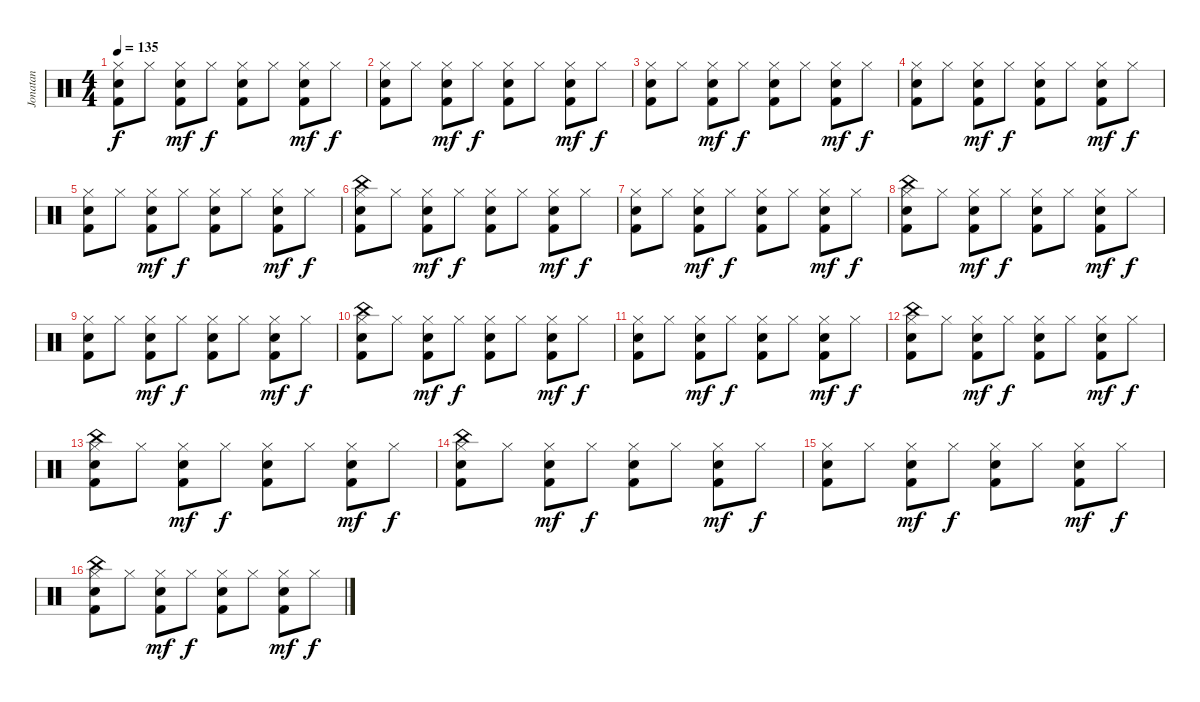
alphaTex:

\track ("Jonatan" "Jonatan") {instrument percussion}
\staff {score}
\articulation defaults
\ts (4 4)
\tempo 135
\clef neutral
\ks c
("Hi-Hat (closed)" "Electric Snare (hit)" "Kick (hit) 2").8{dy f} "Hi-Hat (closed)".8 ("Hi-Hat (closed)" "Electric Snare (hit)" "Kick (hit) 2").8{dy mf} "Hi-Hat (closed)".8{dy f} ("Hi-Hat (closed)" "Electric Snare (hit)" "Kick (hit) 2").8 "Hi-Hat (closed)".8 ("Hi-Hat (closed)" "Electric Snare (hit)" "Kick (hit) 2").8{dy mf} "Hi-Hat (closed)".8{dy f} |
("Hi-Hat (closed)" "Electric Snare (hit)" "Kick (hit) 2").8 "Hi-Hat (closed)".8 ("Hi-Hat (closed)" "Electric Snare (hit)" "Kick (hit) 2").8{dy mf} "Hi-Hat (closed)".8{dy f} ("Hi-Hat (closed)" "Electric Snare (hit)" "Kick (hit) 2").8 "Hi-Hat (closed)".8 ("Hi-Hat (closed)" "Electric Snare (hit)" "Kick (hit) 2").8{dy mf} "Hi-Hat (closed)".8{dy f} |
("Hi-Hat (closed)" "Electric Snare (hit)" "Kick (hit) 2").8 "Hi-Hat (closed)".8 ("Hi-Hat (closed)" "Electric Snare (hit)" "Kick (hit) 2").8{dy mf} "Hi-Hat (closed)".8{dy f} ("Hi-Hat (closed)" "Electric Snare (hit)" "Kick (hit) 2").8 "Hi-Hat (closed)".8 ("Hi-Hat (closed)" "Electric Snare (hit)" "Kick (hit) 2").8{dy mf} "Hi-Hat (closed)".8{dy f} |
("Hi-Hat (closed)" "Electric Snare (hit)" "Kick (hit) 2").8 "Hi-Hat (closed)".8 ("Hi-Hat (closed)" "Electric Snare (hit)" "Kick (hit) 2").8{dy mf} "Hi-Hat (closed)".8{dy f} ("Hi-Hat (closed)" "Electric Snare (hit)" "Kick (hit) 2").8 "Hi-Hat (closed)".8 ("Hi-Hat (closed)" "Electric Snare (hit)" "Kick (hit) 2").8{dy mf} "Hi-Hat (closed)".8{dy f} |
("Hi-Hat (closed)" "Electric Snare (hit)" "Kick (hit) 2").8 "Hi-Hat (closed)".8 ("Hi-Hat (closed)" "Electric Snare (hit)" "Kick (hit) 2").8{dy mf} "Hi-Hat (closed)".8{dy f} ("Hi-Hat (closed)" "Electric Snare (hit)" "Kick (hit) 2").8 "Hi-Hat (closed)".8 ("Hi-Hat (closed)" "Electric Snare (hit)" "Kick (hit) 2").8{dy mf} "Hi-Hat (closed)".8{dy f} |
("China (hit)" "Hi-Hat (closed)" "Electric Snare (hit)" "Kick (hit) 2").8 "Hi-Hat (closed)".8 ("Hi-Hat (closed)" "Electric Snare (hit)" "Kick (hit) 2").8{dy mf} "Hi-Hat (closed)".8{dy f} ("Hi-Hat (closed)" "Electric Snare (hit)" "Kick (hit) 2").8 "Hi-Hat (closed)".8 ("Hi-Hat (closed)" "Electric Snare (hit)" "Kick (hit) 2").8{dy mf} "Hi-Hat (closed)".8{dy f} |
("Hi-Hat (closed)" "Electric Snare (hit)" "Kick (hit) 2").8 "Hi-Hat (closed)".8 ("Hi-Hat (closed)" "Electric Snare (hit)" "Kick (hit) 2").8{dy mf} "Hi-Hat (closed)".8{dy f} ("Hi-Hat (closed)" "Electric Snare (hit)" "Kick (hit) 2").8 "Hi-Hat (closed)".8 ("Hi-Hat (closed)" "Electric Snare (hit)" "Kick (hit) 2").8{dy mf} "Hi-Hat (closed)".8{dy f} |
("China (hit)" "Hi-Hat (closed)" "Electric Snare (hit)" "Kick (hit) 2").8 "Hi-Hat (closed)".8 ("Hi-Hat (closed)" "Electric Snare (hit)" "Kick (hit) 2").8{dy mf} "Hi-Hat (closed)".8{dy f} ("Hi-Hat (closed)" "Electric Snare (hit)" "Kick (hit) 2").8 "Hi-Hat (closed)".8 ("Hi-Hat (closed)" "Electric Snare (hit)" "Kick (hit) 2").8{dy mf} "Hi-Hat (closed)".8{dy f} |
("Hi-Hat (closed)" "Electric Snare (hit)" "Kick (hit) 2").8 "Hi-Hat (closed)".8 ("Hi-Hat (closed)" "Electric Snare (hit)" "Kick (hit) 2").8{dy mf} "Hi-Hat (closed)".8{dy f} ("Hi-Hat (closed)" "Electric Snare (hit)" "Kick (hit) 2").8 "Hi-Hat (closed)".8 ("Hi-Hat (closed)" "Electric Snare (hit)" "Kick (hit) 2").8{dy mf} "Hi-Hat (closed)".8{dy f} |
("China (hit)" "Hi-Hat (closed)" "Electric Snare (hit)" "Kick (hit) 2").8 "Hi-Hat (closed)".8 ("Hi-Hat (closed)" "Electric Snare (hit)" "Kick (hit) 2").8{dy mf} "Hi-Hat (closed)".8{dy f} ("Hi-Hat (closed)" "Electric Snare (hit)" "Kick (hit) 2").8 "Hi-Hat (closed)".8 ("Hi-Hat (closed)" "Electric Snare (hit)" "Kick (hit) 2").8{dy mf} "Hi-Hat (closed)".8{dy f} |
("Hi-Hat (closed)" "Electric Snare (hit)" "Kick (hit) 2").8 "Hi-Hat (closed)".8 ("Hi-Hat (closed)" "Electric Snare (hit)" "Kick (hit) 2").8{dy mf} "Hi-Hat (closed)".8{dy f} ("Hi-Hat (closed)" "Electric Snare (hit)" "Kick (hit) 2").8 "Hi-Hat (closed)".8 ("Hi-Hat (closed)" "Electric Snare (hit)" "Kick (hit) 2").8{dy mf} "Hi-Hat (closed)".8{dy f} |
("China (hit)" "Hi-Hat (closed)" "Electric Snare (hit)" "Kick (hit) 2").8 "Hi-Hat (closed)".8 ("Hi-Hat (closed)" "Electric Snare (hit)" "Kick (hit) 2").8{dy mf} "Hi-Hat (closed)".8{dy f} ("Hi-Hat (closed)" "Electric Snare (hit)" "Kick (hit) 2").8 "Hi-Hat (closed)".8 ("Hi-Hat (closed)" "Electric Snare (hit)" "Kick (hit) 2").8{dy mf} "Hi-Hat (closed)".8{dy f} |
("China (hit)" "Hi-Hat (closed)" "Electric Snare (hit)" "Kick (hit) 2").8 "Hi-Hat (closed)".8 ("Hi-Hat (closed)" "Electric Snare (hit)" "Kick (hit) 2").8{dy mf} "Hi-Hat (closed)".8{dy f} ("Hi-Hat (closed)" "Electric Snare (hit)" "Kick (hit) 2").8 "Hi-Hat (closed)".8 ("Hi-Hat (closed)" "Electric Snare (hit)" "Kick (hit) 2").8{dy mf} "Hi-Hat (closed)".8{dy f} |
("China (hit)" "Hi-Hat (closed)" "Electric Snare (hit)" "Kick (hit) 2").8 "Hi-Hat (closed)".8 ("Hi-Hat (closed)" "Electric Snare (hit)" "Kick (hit) 2").8{dy mf} "Hi-Hat (closed)".8{dy f} ("Hi-Hat (closed)" "Electric Snare (hit)" "Kick (hit) 2").8 "Hi-Hat (closed)".8 ("Hi-Hat (closed)" "Electric Snare (hit)" "Kick (hit) 2").8{dy mf} "Hi-Hat (closed)".8{dy f} |
("Hi-Hat (closed)" "Electric Snare (hit)" "Kick (hit) 2").8 "Hi-Hat (closed)".8 ("Hi-Hat (closed)" "Electric Snare (hit)" "Kick (hit) 2").8{dy mf} "Hi-Hat (closed)".8{dy f} ("Hi-Hat (closed)" "Electric Snare (hit)" "Kick (hit) 2").8 "Hi-Hat (closed)".8 ("Hi-Hat (closed)" "Electric Snare (hit)" "Kick (hit) 2").8{dy mf} "Hi-Hat (closed)".8{dy f} |
("China (hit)" "Hi-Hat (closed)" "Electric Snare (hit)" "Kick (hit) 2").8 "Hi-Hat (closed)".8 ("Hi-Hat (closed)" "Electric Snare (hit)" "Kick (hit) 2").8{dy mf} "Hi-Hat (closed)".8{dy f} ("Hi-Hat (closed)" "Electric Snare (hit)" "Kick (hit) 2").8 "Hi-Hat (closed)".8 ("Hi-Hat (closed)" "Electric Snare (hit)" "Kick (hit) 2").8{dy mf} "Hi-Hat (closed)".8{dy f}
